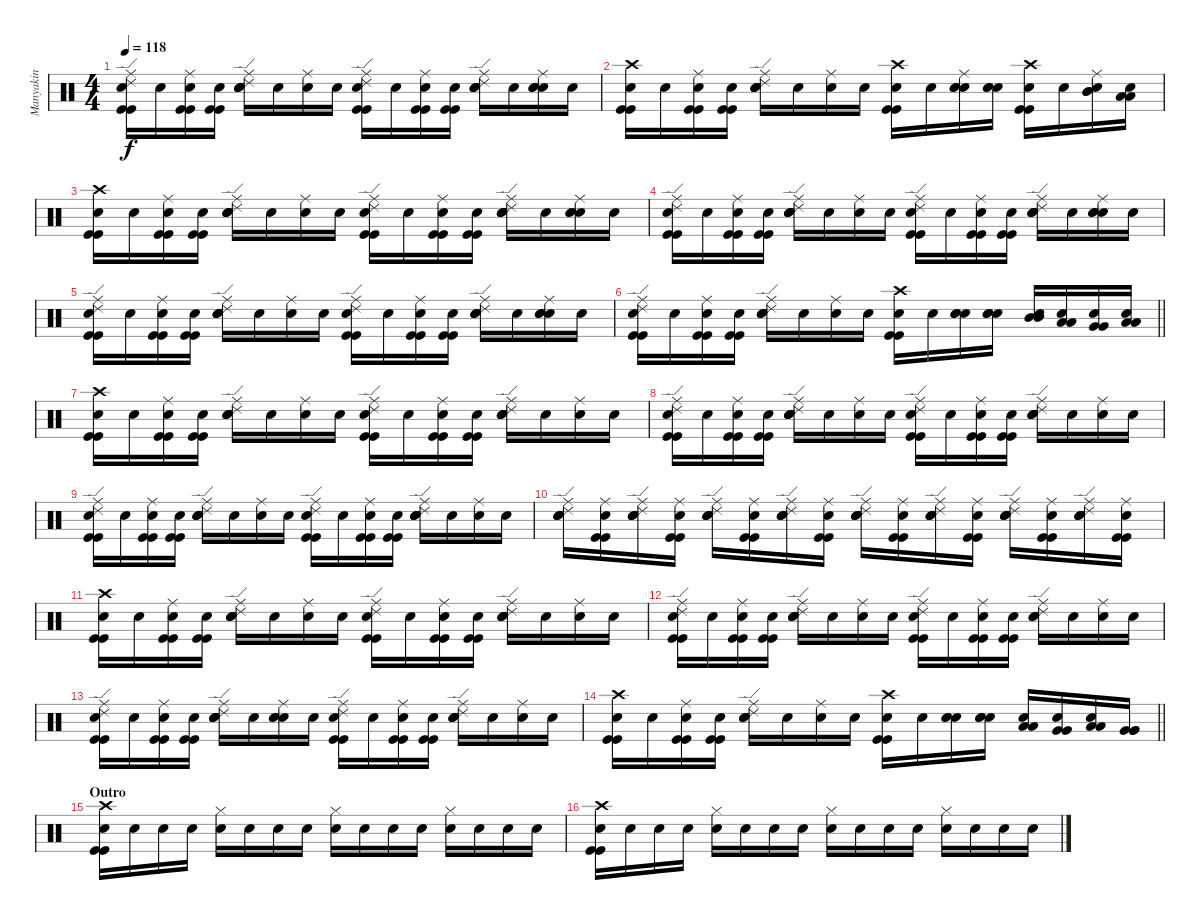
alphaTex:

\track ("Manyakin" "Manyakin") {instrument percussion}
\staff {score}
\articulation defaults
\ts (4 4)
\tempo 118
\clef neutral
\ks c
("Ride (middle)" "Ride (edge) 2" "Kick (hit)" "Kick (hit)" "Snare (hit)"{x}).16{dy f} "Snare (hit)"{x}.16 ("Ride (middle)" "Kick (hit)" "Kick (hit)" "Snare (hit)"{x}).16 ("Kick (hit)" "Kick (hit)" "Snare (hit)"{x}).16 ("Ride (middle)" "Ride (edge) 2" "Electric Snare (hit)" "Electric Snare (hit)" "Snare (hit)"{x}).16 "Snare (hit)"{x}.16 ("Ride (middle)" "Snare (hit)"{x}).16 "Snare (hit)"{x}.16 ("Ride (middle)" "Ride (edge) 2" "Kick (hit)" "Kick (hit)" "Snare (hit)"{x}).16 "Snare (hit)"{x}.16 ("Ride (middle)" "Kick (hit)" "Kick (hit)" "Snare (hit)"{x}).16 ("Kick (hit)" "Kick (hit)" "Snare (hit)"{x}).16 ("Ride (middle)" "Ride (edge) 2" "Electric Snare (hit)" "Electric Snare (hit)" "Snare (hit)"{x}).16 "Snare (hit)"{x}.16 ("Ride (middle)" "Electric Snare (hit)" "Electric Snare (hit)" "Snare (hit)"{x}).16 "Snare (hit)"{x}.16 |
("Crash high (hit)" "Kick (hit)" "Kick (hit)" "Snare (hit)"{x}).16 "Snare (hit)"{x}.16 ("Ride (middle)" "Kick (hit)" "Kick (hit)" "Snare (hit)"{x}).16 ("Kick (hit)" "Kick (hit)" "Snare (hit)"{x}).16 ("Ride (middle)" "Ride (edge) 2" "Electric Snare (hit)" "Electric Snare (hit)" "Snare (hit)"{x}).16 "Snare (hit)"{x}.16 ("Ride (middle)" "Snare (hit)"{x}).16 "Snare (hit)"{x}.16 ("Crash high (hit)" "Kick (hit)" "Kick (hit)" "Snare (hit)"{x}).16 "Snare (hit)"{x}.16 ("Ride (middle)" "Electric Snare (hit)" "Electric Snare (hit)" "Snare (hit)"{x}).16 ("Electric Snare (hit)" "Electric Snare (hit)" "Snare (hit)"{x}).16 ("Crash high (hit)" "Kick (hit)" "Kick (hit)" "Snare (hit)"{x}).16 "Snare (hit)"{x}.16 ("Ride (middle)" "Mid Tom (hit)" "Mid Tom (hit)" "Snare (hit)"{x}).16 ("Low Tom (hit)" "Low Tom (hit)" "Snare (hit)"{x}).16 |
("Crash high (hit)" "Kick (hit)" "Kick (hit)" "Snare (hit)"{x}).16 "Snare (hit)"{x}.16 ("Ride (middle)" "Kick (hit)" "Kick (hit)" "Snare (hit)"{x}).16 ("Kick (hit)" "Kick (hit)" "Snare (hit)"{x}).16 ("Ride (middle)" "Ride (edge) 2" "Electric Snare (hit)" "Electric Snare (hit)" "Snare (hit)"{x}).16 "Snare (hit)"{x}.16 ("Ride (middle)" "Snare (hit)"{x}).16 "Snare (hit)"{x}.16 ("Ride (middle)" "Ride (edge) 2" "Kick (hit)" "Kick (hit)" "Snare (hit)"{x}).16 "Snare (hit)"{x}.16 ("Ride (middle)" "Kick (hit)" "Kick (hit)" "Snare (hit)"{x}).16 ("Kick (hit)" "Kick (hit)" "Snare (hit)"{x}).16 ("Ride (middle)" "Ride (edge) 2" "Electric Snare (hit)" "Electric Snare (hit)" "Snare (hit)"{x}).16 "Snare (hit)"{x}.16 ("Ride (middle)" "Electric Snare (hit)" "Electric Snare (hit)" "Snare (hit)"{x}).16 "Snare (hit)"{x}.16 |
("Ride (middle)" "Ride (edge) 2" "Kick (hit)" "Kick (hit)" "Snare (hit)"{x}).16 "Snare (hit)"{x}.16 ("Ride (middle)" "Kick (hit)" "Kick (hit)" "Snare (hit)"{x}).16 ("Kick (hit)" "Kick (hit)" "Snare (hit)"{x}).16 ("Ride (middle)" "Ride (edge) 2" "Electric Snare (hit)" "Electric Snare (hit)" "Snare (hit)"{x}).16 "Snare (hit)"{x}.16 ("Ride (middle)" "Snare (hit)"{x}).16 "Snare (hit)"{x}.16 ("Ride (middle)" "Ride (edge) 2" "Kick (hit)" "Kick (hit)" "Snare (hit)"{x}).16 "Snare (hit)"{x}.16 ("Ride (middle)" "Kick (hit)" "Kick (hit)" "Snare (hit)"{x}).16 ("Kick (hit)" "Kick (hit)" "Snare (hit)"{x}).16 ("Ride (middle)" "Ride (edge) 2" "Electric Snare (hit)" "Electric Snare (hit)" "Snare (hit)"{x}).16 "Snare (hit)"{x}.16 ("Ride (middle)" "Electric Snare (hit)" "Electric Snare (hit)" "Snare (hit)"{x}).16 "Snare (hit)"{x}.16 |
("Ride (middle)" "Ride (edge) 2" "Kick (hit)" "Kick (hit)" "Snare (hit)"{x}).16 "Snare (hit)"{x}.16 ("Ride (middle)" "Kick (hit)" "Kick (hit)" "Snare (hit)"{x}).16 ("Kick (hit)" "Kick (hit)" "Snare (hit)"{x}).16 ("Ride (middle)" "Ride (edge) 2" "Electric Snare (hit)" "Electric Snare (hit)" "Snare (hit)"{x}).16 "Snare (hit)"{x}.16 ("Ride (middle)" "Snare (hit)"{x}).16 "Snare (hit)"{x}.16 ("Ride (middle)" "Ride (edge) 2" "Kick (hit)" "Kick (hit)" "Snare (hit)"{x}).16 "Snare (hit)"{x}.16 ("Ride (middle)" "Kick (hit)" "Kick (hit)" "Snare (hit)"{x}).16 ("Kick (hit)" "Kick (hit)" "Snare (hit)"{x}).16 ("Ride (middle)" "Ride (edge) 2" "Electric Snare (hit)" "Electric Snare (hit)" "Snare (hit)"{x}).16 "Snare (hit)"{x}.16 ("Ride (middle)" "Electric Snare (hit)" "Electric Snare (hit)" "Snare (hit)"{x}).16 "Snare (hit)"{x}.16 |
\barLineRight lightlight
("Ride (middle)" "Ride (edge) 2" "Kick (hit)" "Kick (hit)" "Snare (hit)"{x}).16 "Snare (hit)"{x}.16 ("Ride (middle)" "Kick (hit)" "Kick (hit)" "Snare (hit)"{x}).16 ("Kick (hit)" "Kick (hit)" "Snare (hit)"{x}).16 ("Ride (middle)" "Ride (edge) 2" "Electric Snare (hit)" "Electric Snare (hit)" "Snare (hit)"{x}).16 "Snare (hit)"{x}.16 ("Ride (middle)" "Snare (hit)"{x}).16 "Snare (hit)"{x}.16 ("Crash high (hit)" "Kick (hit)" "Kick (hit)" "Snare (hit)"{x}).16 "Snare (hit)"{x}.16 ("Electric Snare (hit)" "Electric Snare (hit)" "Snare (hit)"{x}).16 ("Electric Snare (hit)" "Electric Snare (hit)" "Snare (hit)"{x}).16 ("Mid Tom (hit)" "Mid Tom (hit)" "Snare (hit)"{x}).16 ("Low Tom (hit)" "Low Tom (hit)" "Snare (hit)"{x}).16 ("Very Low Tom (hit)" "Very Low Tom (hit)" "Snare (hit)"{x}).16 ("Low Floor Tom (hit)" "Low Floor Tom (hit)" "Snare (hit)"{x}).16 |
("Crash high (hit)" "Kick (hit)" "Kick (hit)" "Snare (hit)"{x}).16 "Snare (hit)"{x}.16 ("Ride (middle)" "Kick (hit)" "Kick (hit)" "Snare (hit)"{x}).16 ("Kick (hit)" "Kick (hit)" "Snare (hit)"{x}).16 ("Ride (middle)" "Ride (edge) 2" "Electric Snare (hit)" "Electric Snare (hit)" "Snare (hit)"{x}).16 "Snare (hit)"{x}.16 ("Ride (middle)" "Snare (hit)"{x}).16 "Snare (hit)"{x}.16 ("Ride (middle)" "Ride (edge) 2" "Kick (hit)" "Kick (hit)" "Snare (hit)"{x}).16 "Snare (hit)"{x}.16 ("Ride (middle)" "Kick (hit)" "Kick (hit)" "Snare (hit)"{x}).16 ("Kick (hit)" "Kick (hit)" "Snare (hit)"{x}).16 ("Ride (middle)" "Ride (edge) 2" "Electric Snare (hit)" "Electric Snare (hit)" "Snare (hit)"{x}).16 "Snare (hit)"{x}.16 ("Ride (middle)" "Snare (hit)"{x}).16 "Snare (hit)"{x}.16 |
("Ride (middle)" "Ride (edge) 2" "Kick (hit)" "Kick (hit)" "Snare (hit)"{x}).16 "Snare (hit)"{x}.16 ("Ride (middle)" "Kick (hit)" "Kick (hit)" "Snare (hit)"{x}).16 ("Kick (hit)" "Kick (hit)" "Snare (hit)"{x}).16 ("Ride (middle)" "Ride (edge) 2" "Electric Snare (hit)" "Electric Snare (hit)" "Snare (hit)"{x}).16 "Snare (hit)"{x}.16 ("Ride (middle)" "Snare (hit)"{x}).16 "Snare (hit)"{x}.16 ("Ride (middle)" "Ride (edge) 2" "Kick (hit)" "Kick (hit)" "Snare (hit)"{x}).16 "Snare (hit)"{x}.16 ("Ride (middle)" "Kick (hit)" "Kick (hit)" "Snare (hit)"{x}).16 ("Kick (hit)" "Kick (hit)" "Snare (hit)"{x}).16 ("Ride (middle)" "Ride (edge) 2" "Electric Snare (hit)" "Electric Snare (hit)" "Snare (hit)"{x}).16 "Snare (hit)"{x}.16 ("Ride (middle)" "Snare (hit)"{x}).16 "Snare (hit)"{x}.16 |
("Ride (middle)" "Ride (edge) 2" "Kick (hit)" "Kick (hit)" "Snare (hit)"{x}).16 "Snare (hit)"{x}.16 ("Ride (middle)" "Kick (hit)" "Kick (hit)" "Snare (hit)"{x}).16 ("Kick (hit)" "Kick (hit)" "Snare (hit)"{x}).16 ("Ride (middle)" "Ride (edge) 2" "Electric Snare (hit)" "Electric Snare (hit)" "Snare (hit)"{x}).16 "Snare (hit)"{x}.16 ("Ride (middle)" "Snare (hit)"{x}).16 "Snare (hit)"{x}.16 ("Ride (middle)" "Ride (edge) 2" "Kick (hit)" "Kick (hit)" "Snare (hit)"{x}).16 "Snare (hit)"{x}.16 ("Ride (middle)" "Kick (hit)" "Kick (hit)" "Snare (hit)"{x}).16 ("Kick (hit)" "Kick (hit)" "Snare (hit)"{x}).16 ("Ride (middle)" "Ride (edge) 2" "Electric Snare (hit)" "Electric Snare (hit)" "Snare (hit)"{x}).16 "Snare (hit)"{x}.16 ("Ride (middle)" "Snare (hit)"{x}).16 "Snare (hit)"{x}.16 |
("Ride (middle)" "Ride (edge) 2" "Electric Snare (hit)" "Electric Snare (hit)" "Snare (hit)"{x}).16 ("Ride (middle)" "Kick (hit)" "Kick (hit)" "Snare (hit)"{x}).16 ("Ride (middle)" "Ride (edge) 2" "Electric Snare (hit)" "Electric Snare (hit)" "Snare (hit)"{x}).16 ("Ride (middle)" "Kick (hit)" "Kick (hit)" "Snare (hit)"{x}).16 ("Ride (middle)" "Ride (edge) 2" "Electric Snare (hit)" "Electric Snare (hit)" "Snare (hit)"{x}).16 ("Ride (middle)" "Kick (hit)" "Kick (hit)" "Snare (hit)"{x}).16 ("Ride (middle)" "Ride (edge) 2" "Electric Snare (hit)" "Electric Snare (hit)" "Snare (hit)"{x}).16 ("Ride (middle)" "Kick (hit)" "Kick (hit)" "Snare (hit)"{x}).16 ("Ride (middle)" "Ride (edge) 2" "Electric Snare (hit)" "Electric Snare (hit)" "Snare (hit)"{x}).16 ("Ride (middle)" "Kick (hit)" "Kick (hit)" "Snare (hit)"{x}).16 ("Ride (middle)" "Ride (edge) 2" "Electric Snare (hit)" "Electric Snare (hit)" "Snare (hit)"{x}).16 ("Ride (middle)" "Kick (hit)" "Kick (hit)" "Snare (hit)"{x}).16 ("Ride (middle)" "Ride (edge) 2" "Electric Snare (hit)" "Electric Snare (hit)" "Snare (hit)"{x}).16 ("Ride (middle)" "Kick (hit)" "Kick (hit)" "Snare (hit)"{x}).16 ("Ride (middle)" "Ride (edge) 2" "Electric Snare (hit)" "Electric Snare (hit)" "Snare (hit)"{x}).16 ("Ride (middle)" "Kick (hit)" "Kick (hit)" "Snare (hit)"{x}).16 |
("Crash high (hit)" "Kick (hit)" "Kick (hit)" "Snare (hit)"{x}).16 "Snare (hit)"{x}.16 ("Ride (middle)" "Kick (hit)" "Kick (hit)" "Snare (hit)"{x}).16 ("Kick (hit)" "Kick (hit)" "Snare (hit)"{x}).16 ("Ride (middle)" "Ride (edge) 2" "Electric Snare (hit)" "Electric Snare (hit)" "Snare (hit)"{x}).16 "Snare (hit)"{x}.16 ("Ride (middle)" "Snare (hit)"{x}).16 "Snare (hit)"{x}.16 ("Ride (middle)" "Ride (edge) 2" "Kick (hit)" "Kick (hit)" "Snare (hit)"{x}).16 "Snare (hit)"{x}.16 ("Ride (middle)" "Kick (hit)" "Kick (hit)" "Snare (hit)"{x}).16 ("Kick (hit)" "Kick (hit)" "Snare (hit)"{x}).16 ("Ride (middle)" "Ride (edge) 2" "Electric Snare (hit)" "Electric Snare (hit)" "Snare (hit)"{x}).16 "Snare (hit)"{x}.16 ("Ride (middle)" "Snare (hit)"{x}).16 "Snare (hit)"{x}.16 |
("Ride (middle)" "Ride (edge) 2" "Kick (hit)" "Kick (hit)" "Snare (hit)"{x}).16 "Snare (hit)"{x}.16 ("Ride (middle)" "Kick (hit)" "Kick (hit)" "Snare (hit)"{x}).16 ("Kick (hit)" "Kick (hit)" "Snare (hit)"{x}).16 ("Ride (middle)" "Ride (edge) 2" "Electric Snare (hit)" "Electric Snare (hit)" "Snare (hit)"{x}).16 "Snare (hit)"{x}.16 ("Ride (middle)" "Snare (hit)"{x}).16 "Snare (hit)"{x}.16 ("Ride (middle)" "Ride (edge) 2" "Kick (hit)" "Kick (hit)" "Snare (hit)"{x}).16 "Snare (hit)"{x}.16 ("Ride (middle)" "Kick (hit)" "Kick (hit)" "Snare (hit)"{x}).16 ("Kick (hit)" "Kick (hit)" "Snare (hit)"{x}).16 ("Ride (middle)" "Ride (edge) 2" "Electric Snare (hit)" "Electric Snare (hit)" "Snare (hit)"{x}).16 "Snare (hit)"{x}.16 ("Ride (middle)" "Snare (hit)"{x}).16 "Snare (hit)"{x}.16 |
("Ride (middle)" "Ride (edge) 2" "Kick (hit)" "Kick (hit)" "Snare (hit)"{x}).16 "Snare (hit)"{x}.16 ("Ride (middle)" "Kick (hit)" "Kick (hit)" "Snare (hit)"{x}).16 ("Kick (hit)" "Kick (hit)" "Snare (hit)"{x}).16 ("Ride (middle)" "Ride (edge) 2" "Electric Snare (hit)" "Electric Snare (hit)" "Snare (hit)"{x}).16 "Snare (hit)"{x}.16 ("Ride (middle)" "Electric Snare (hit)" "Electric Snare (hit)" "Snare (hit)"{x}).16 "Snare (hit)"{x}.16 ("Ride (middle)" "Ride (edge) 2" "Kick (hit)" "Kick (hit)" "Snare (hit)"{x}).16 "Snare (hit)"{x}.16 ("Ride (middle)" "Kick (hit)" "Kick (hit)" "Snare (hit)"{x}).16 ("Kick (hit)" "Kick (hit)" "Snare (hit)"{x}).16 ("Ride (middle)" "Ride (edge) 2" "Electric Snare (hit)" "Electric Snare (hit)" "Snare (hit)"{x}).16 "Snare (hit)"{x}.16 ("Ride (middle)" "Snare (hit)"{x}).16 "Snare (hit)"{x}.16 |
\barLineRight lightlight
("Crash high (hit)" "Kick (hit)" "Kick (hit)" "Snare (hit)"{x}).16 "Snare (hit)"{x}.16 ("Ride (middle)" "Kick (hit)" "Kick (hit)" "Snare (hit)"{x}).16 ("Kick (hit)" "Kick (hit)" "Snare (hit)"{x}).16 ("Ride (middle)" "Ride (edge) 2" "Electric Snare (hit)" "Electric Snare (hit)" "Snare (hit)"{x}).16 "Snare (hit)"{x}.16 ("Ride (middle)" "Snare (hit)"{x}).16 "Snare (hit)"{x}.16 ("Crash high (hit)" "Kick (hit)" "Kick (hit)" "Snare (hit)"{x}).16 "Snare (hit)"{x}.16 ("Electric Snare (hit)" "Electric Snare (hit)" "Snare (hit)"{x}).16 ("Electric Snare (hit)" "Electric Snare (hit)" "Snare (hit)"{x}).16 ("Low Tom (hit)" "Low Tom (hit)" "Snare (hit)"{x}).16 ("Very Low Tom (hit)" "Very Low Tom (hit)" "Snare (hit)"{x}).16 ("Low Floor Tom (hit)" "Low Floor Tom (hit)" "Snare (hit)"{x}).16 ("Very Low Tom (hit)" "Very Low Tom (hit)" "Very Low Tom (hit)"{x}).16 |
\section ("" "Outro")
("Crash high (hit)" "Kick (hit)" "Kick (hit)" "Snare (hit)"{x}).16 "Snare (hit)"{x}.16 "Snare (hit)"{x}.16 "Snare (hit)"{x}.16 ("Hi-Hat (closed)" "Snare (hit)"{x}).16 "Snare (hit)"{x}.16 "Snare (hit)"{x}.16 "Snare (hit)"{x}.16 ("Hi-Hat (closed)" "Snare (hit)"{x}).16 "Snare (hit)"{x}.16 "Snare (hit)"{x}.16 "Snare (hit)"{x}.16 ("Hi-Hat (closed)" "Snare (hit)"{x}).16 "Snare (hit)"{x}.16 "Snare (hit)"{x}.16 "Snare (hit)"{x}.16 |
("Crash high (hit)" "Kick (hit)" "Kick (hit)" "Snare (hit)"{x}).16 "Snare (hit)"{x}.16 "Snare (hit)"{x}.16 "Snare (hit)"{x}.16 ("Hi-Hat (closed)" "Snare (hit)"{x}).16 "Snare (hit)"{x}.16 "Snare (hit)"{x}.16 "Snare (hit)"{x}.16 ("Hi-Hat (closed)" "Snare (hit)"{x}).16 "Snare (hit)"{x}.16 "Snare (hit)"{x}.16 "Snare (hit)"{x}.16 ("Hi-Hat (closed)" "Snare (hit)"{x}).16 "Snare (hit)"{x}.16 "Snare (hit)"{x}.16 "Snare (hit)"{x}.16
